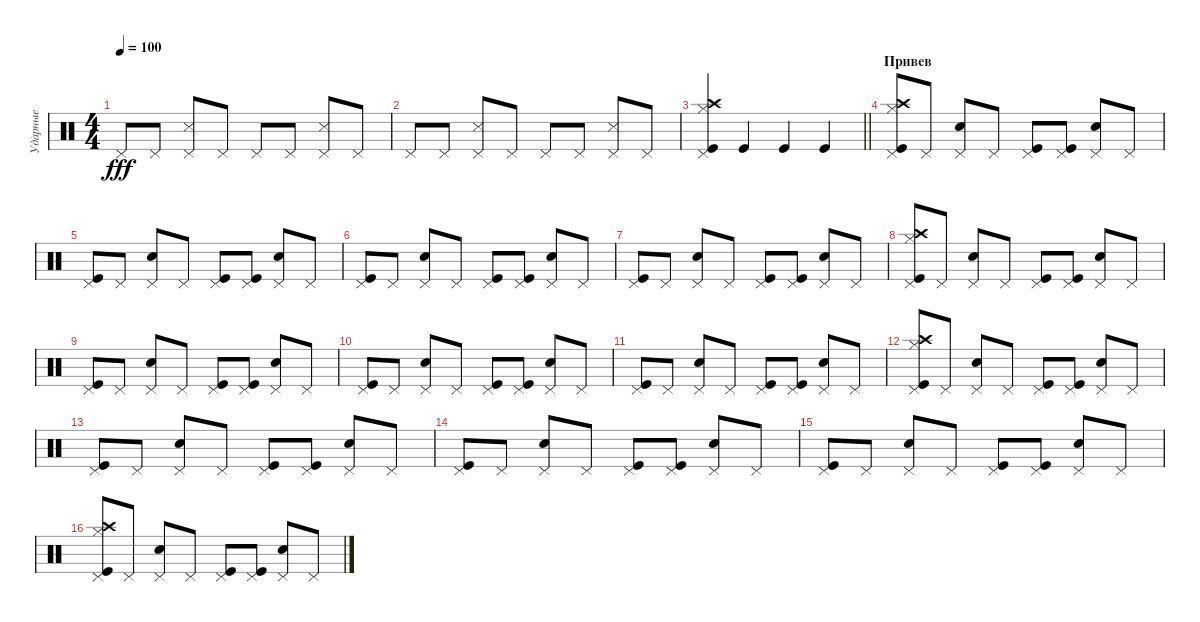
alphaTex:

\track ("Ударные" "Ударные") {instrument percussion}
\staff {score}
\articulation defaults
\ts (4 4)
\tempo 100
\clef neutral
\ks c "Pedal Hi-Hat (hit)".8{dy fff} "Pedal Hi-Hat (hit)".8
("Pedal Hi-Hat (hit)" "Snare (side stick) 3").8 "Pedal Hi-Hat (hit)".8 "Pedal Hi-Hat (hit)".8 "Pedal Hi-Hat (hit)".8 ("Pedal Hi-Hat (hit)" "Snare (side stick) 3").8 "Pedal Hi-Hat (hit)".8 |
"Pedal Hi-Hat (hit)".8 "Pedal Hi-Hat (hit)".8 ("Pedal Hi-Hat (hit)" "Snare (side stick) 3").8 "Pedal Hi-Hat (hit)".8 "Pedal Hi-Hat (hit)".8 "Pedal Hi-Hat (hit)".8 ("Pedal Hi-Hat (hit)" "Snare (side stick) 3").8 "Pedal Hi-Hat (hit)".8 |
\barLineRight lightlight
("Pedal Hi-Hat (hit)" "Crash high (hit)" "Hi-Hat (closed)" "Kick (hit)").4 "Kick (hit)".4 "Kick (hit)".4 "Kick (hit)".4 |
\section ("" "Привев")
("Pedal Hi-Hat (hit)" "Crash high (hit)" "Hi-Hat (closed)" "Kick (hit)").8 "Pedal Hi-Hat (hit)".8 ("Pedal Hi-Hat (hit)" "Snare (hit) 2").8 "Pedal Hi-Hat (hit)".8 ("Pedal Hi-Hat (hit)" "Kick (hit)").8 ("Pedal Hi-Hat (hit)" "Kick (hit)").8 ("Pedal Hi-Hat (hit)" "Snare (hit) 2").8 "Pedal Hi-Hat (hit)".8 |
("Pedal Hi-Hat (hit)" "Kick (hit)").8 "Pedal Hi-Hat (hit)".8 ("Pedal Hi-Hat (hit)" "Snare (hit) 2").8 "Pedal Hi-Hat (hit)".8 ("Pedal Hi-Hat (hit)" "Kick (hit)").8 ("Pedal Hi-Hat (hit)" "Kick (hit)").8 ("Pedal Hi-Hat (hit)" "Snare (hit) 2").8 "Pedal Hi-Hat (hit)".8 |
("Pedal Hi-Hat (hit)" "Kick (hit)").8 "Pedal Hi-Hat (hit)".8 ("Pedal Hi-Hat (hit)" "Snare (hit) 2").8 "Pedal Hi-Hat (hit)".8 ("Pedal Hi-Hat (hit)" "Kick (hit)").8 ("Pedal Hi-Hat (hit)" "Kick (hit)").8 ("Pedal Hi-Hat (hit)" "Snare (hit) 2").8 "Pedal Hi-Hat (hit)".8 |
("Pedal Hi-Hat (hit)" "Kick (hit)").8 "Pedal Hi-Hat (hit)".8 ("Pedal Hi-Hat (hit)" "Snare (hit) 2").8 "Pedal Hi-Hat (hit)".8 ("Pedal Hi-Hat (hit)" "Kick (hit)").8 ("Pedal Hi-Hat (hit)" "Kick (hit)").8 ("Pedal Hi-Hat (hit)" "Snare (hit) 2").8 "Pedal Hi-Hat (hit)".8 |
("Pedal Hi-Hat (hit)" "Crash high (hit)" "Hi-Hat (closed)" "Kick (hit)").8 "Pedal Hi-Hat (hit)".8 ("Pedal Hi-Hat (hit)" "Snare (hit) 2").8 "Pedal Hi-Hat (hit)".8 ("Pedal Hi-Hat (hit)" "Kick (hit)").8 ("Pedal Hi-Hat (hit)" "Kick (hit)").8 ("Pedal Hi-Hat (hit)" "Snare (hit) 2").8 "Pedal Hi-Hat (hit)".8 |
("Pedal Hi-Hat (hit)" "Kick (hit)").8 "Pedal Hi-Hat (hit)".8 ("Pedal Hi-Hat (hit)" "Snare (hit) 2").8 "Pedal Hi-Hat (hit)".8 ("Pedal Hi-Hat (hit)" "Kick (hit)").8 ("Pedal Hi-Hat (hit)" "Kick (hit)").8 ("Pedal Hi-Hat (hit)" "Snare (hit) 2").8 "Pedal Hi-Hat (hit)".8 |
("Pedal Hi-Hat (hit)" "Kick (hit)").8 "Pedal Hi-Hat (hit)".8 ("Pedal Hi-Hat (hit)" "Snare (hit) 2").8 "Pedal Hi-Hat (hit)".8 ("Pedal Hi-Hat (hit)" "Kick (hit)").8 ("Pedal Hi-Hat (hit)" "Kick (hit)").8 ("Pedal Hi-Hat (hit)" "Snare (hit) 2").8 "Pedal Hi-Hat (hit)".8 |
("Pedal Hi-Hat (hit)" "Kick (hit)").8 "Pedal Hi-Hat (hit)".8 ("Pedal Hi-Hat (hit)" "Snare (hit) 2").8 "Pedal Hi-Hat (hit)".8 ("Pedal Hi-Hat (hit)" "Kick (hit)").8 ("Pedal Hi-Hat (hit)" "Kick (hit)").8 ("Pedal Hi-Hat (hit)" "Snare (hit) 2").8 "Pedal Hi-Hat (hit)".8 |
("Pedal Hi-Hat (hit)" "Crash high (hit)" "Hi-Hat (closed)" "Kick (hit)").8 "Pedal Hi-Hat (hit)".8 ("Pedal Hi-Hat (hit)" "Snare (hit) 2").8 "Pedal Hi-Hat (hit)".8 ("Pedal Hi-Hat (hit)" "Kick (hit)").8 ("Pedal Hi-Hat (hit)" "Kick (hit)").8 ("Pedal Hi-Hat (hit)" "Snare (hit) 2").8 "Pedal Hi-Hat (hit)".8 |
("Pedal Hi-Hat (hit)" "Kick (hit)").8 "Pedal Hi-Hat (hit)".8 ("Pedal Hi-Hat (hit)" "Snare (hit) 2").8 "Pedal Hi-Hat (hit)".8 ("Pedal Hi-Hat (hit)" "Kick (hit)").8 ("Pedal Hi-Hat (hit)" "Kick (hit)").8 ("Pedal Hi-Hat (hit)" "Snare (hit) 2").8 "Pedal Hi-Hat (hit)".8 |
("Pedal Hi-Hat (hit)" "Kick (hit)").8 "Pedal Hi-Hat (hit)".8 ("Pedal Hi-Hat (hit)" "Snare (hit) 2").8 "Pedal Hi-Hat (hit)".8 ("Pedal Hi-Hat (hit)" "Kick (hit)").8 ("Pedal Hi-Hat (hit)" "Kick (hit)").8 ("Pedal Hi-Hat (hit)" "Snare (hit) 2").8 "Pedal Hi-Hat (hit)".8 |
("Pedal Hi-Hat (hit)" "Kick (hit)").8 "Pedal Hi-Hat (hit)".8 ("Pedal Hi-Hat (hit)" "Snare (hit) 2").8 "Pedal Hi-Hat (hit)".8 ("Pedal Hi-Hat (hit)" "Kick (hit)").8 ("Pedal Hi-Hat (hit)" "Kick (hit)").8 ("Pedal Hi-Hat (hit)" "Snare (hit) 2").8 "Pedal Hi-Hat (hit)".8 |
("Pedal Hi-Hat (hit)" "Crash high (hit)" "Hi-Hat (closed)" "Kick (hit)").8 "Pedal Hi-Hat (hit)".8 ("Pedal Hi-Hat (hit)" "Snare (hit) 2").8 "Pedal Hi-Hat (hit)".8 ("Pedal Hi-Hat (hit)" "Kick (hit)").8 ("Pedal Hi-Hat (hit)" "Kick (hit)").8 ("Pedal Hi-Hat (hit)" "Snare (hit) 2").8 "Pedal Hi-Hat (hit)".8
